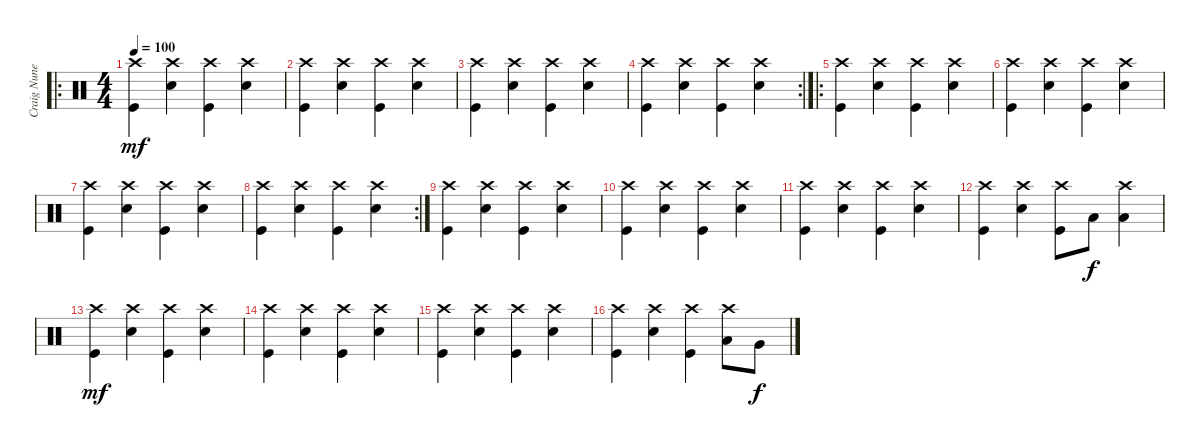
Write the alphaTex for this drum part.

\track ("Craig Nunenmacher (Drums)" "Craig Nune") {instrument percussion}
\staff {score}
\articulation defaults
\ro
\ts (4 4)
\tempo 100
\clef neutral
\ks c
("Crash high (hit)" "Kick (hit)").4{dy mf} ("Crash high (hit)" "Snare (hit) 2").4 ("Crash high (hit)" "Kick (hit)").4 ("Crash high (hit)" "Snare (hit) 2").4 |
("Crash high (hit)" "Kick (hit)").4 ("Crash high (hit)" "Snare (hit) 2").4 ("Crash high (hit)" "Kick (hit)").4 ("Crash high (hit)" "Snare (hit) 2").4 |
("Crash high (hit)" "Kick (hit)").4 ("Crash high (hit)" "Snare (hit) 2").4 ("Crash high (hit)" "Kick (hit)").4 ("Crash high (hit)" "Snare (hit) 2").4 |
\rc 2
("Crash high (hit)" "Kick (hit)").4 ("Crash high (hit)" "Snare (hit) 2").4 ("Crash high (hit)" "Kick (hit)").4 ("Crash high (hit)" "Snare (hit) 2").4 |
\ro
("Crash high (hit)" "Kick (hit)").4 ("Crash high (hit)" "Snare (hit) 2").4 ("Crash high (hit)" "Kick (hit)").4 ("Crash high (hit)" "Snare (hit) 2").4 |
("Crash high (hit)" "Kick (hit)").4 ("Crash high (hit)" "Snare (hit) 2").4 ("Crash high (hit)" "Kick (hit)").4 ("Crash high (hit)" "Snare (hit) 2").4 |
("Crash high (hit)" "Kick (hit)").4 ("Crash high (hit)" "Snare (hit) 2").4 ("Crash high (hit)" "Kick (hit)").4 ("Crash high (hit)" "Snare (hit) 2").4 |
\rc 2
("Crash high (hit)" "Kick (hit)").4 ("Crash high (hit)" "Snare (hit) 2").4 ("Crash high (hit)" "Kick (hit)").4 ("Crash high (hit)" "Snare (hit) 2").4 |
("Crash high (hit)" "Kick (hit)").4 ("Crash high (hit)" "Snare (hit) 2").4 ("Crash high (hit)" "Kick (hit)").4 ("Crash high (hit)" "Snare (hit) 2").4 |
("Crash high (hit)" "Kick (hit)").4 ("Crash high (hit)" "Snare (hit) 2").4 ("Crash high (hit)" "Kick (hit)").4 ("Crash high (hit)" "Snare (hit) 2").4 |
("Crash high (hit)" "Kick (hit)").4 ("Crash high (hit)" "Snare (hit) 2").4 ("Crash high (hit)" "Kick (hit)").4 ("Crash high (hit)" "Snare (hit) 2").4 |
("Crash high (hit)" "Kick (hit)").4 ("Crash high (hit)" "Snare (hit) 2").4 ("Crash high (hit)" "Kick (hit)").8 "Low Tom (hit)".8{dy f} ("Crash high (hit)" "Low Tom (hit)").4 |
("Crash high (hit)" "Kick (hit)").4{dy mf} ("Crash high (hit)" "Snare (hit) 2").4 ("Crash high (hit)" "Kick (hit)").4 ("Crash high (hit)" "Snare (hit) 2").4 |
("Crash high (hit)" "Kick (hit)").4 ("Crash high (hit)" "Snare (hit) 2").4 ("Crash high (hit)" "Kick (hit)").4 ("Crash high (hit)" "Snare (hit) 2").4 |
("Crash high (hit)" "Kick (hit)").4 ("Crash high (hit)" "Snare (hit) 2").4 ("Crash high (hit)" "Kick (hit)").4 ("Crash high (hit)" "Snare (hit) 2").4 |
("Crash high (hit)" "Kick (hit)").4 ("Crash high (hit)" "Snare (hit) 2").4 ("Crash high (hit)" "Kick (hit)").4 ("Crash high (hit)" "Low Tom (hit)").8 "Very Low Tom (hit)".8{dy f}
